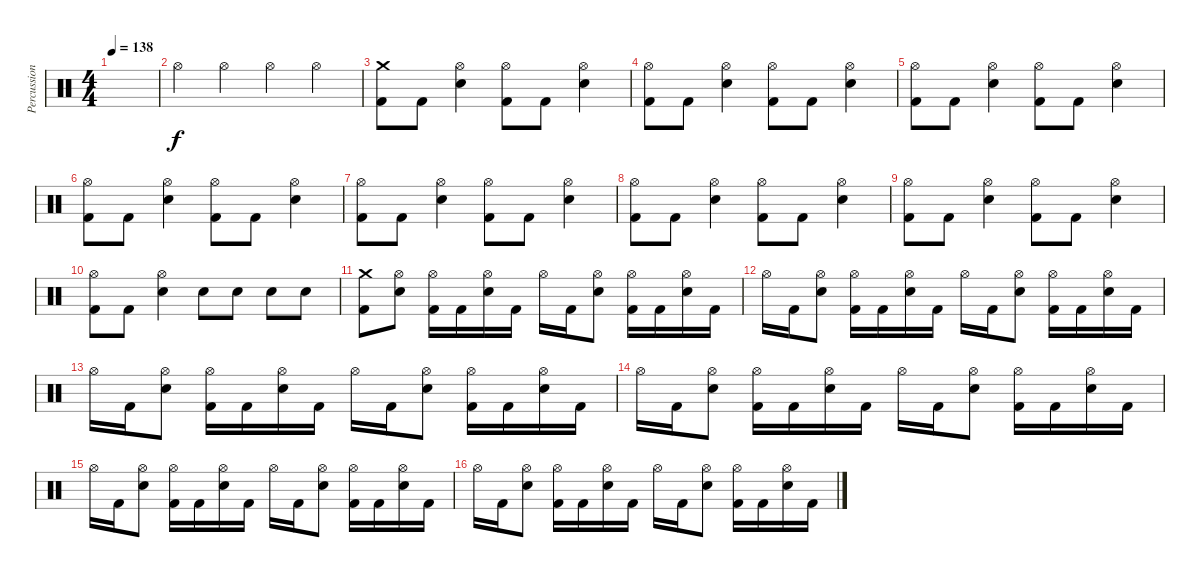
\track ("Percussion" "Percussion") {instrument percussion}
\staff {score}
\articulation defaults
\ts (4 4)
\tempo 138
\clef neutral
\ks c
|
"Hi-Hat (open)".4 "Hi-Hat (open)".4 "Hi-Hat (open)".4 "Hi-Hat (open)".4 |
("Crash medium (hit)" "Kick (hit) 2").8 "Kick (hit) 2".8 ("Hi-Hat (open)" "Snare (hit) 2").4 ("Hi-Hat (open)" "Kick (hit) 2").8 "Kick (hit) 2".8 ("Hi-Hat (open)" "Snare (hit) 2").4 |
("Hi-Hat (open)" "Kick (hit) 2").8 "Kick (hit) 2".8 ("Hi-Hat (open)" "Snare (hit) 2").4 ("Hi-Hat (open)" "Kick (hit) 2").8 "Kick (hit) 2".8 ("Hi-Hat (open)" "Snare (hit) 2").4 |
("Hi-Hat (open)" "Kick (hit) 2").8 "Kick (hit) 2".8 ("Hi-Hat (open)" "Snare (hit) 2").4 ("Hi-Hat (open)" "Kick (hit) 2").8 "Kick (hit) 2".8 ("Hi-Hat (open)" "Snare (hit) 2").4 |
("Hi-Hat (open)" "Kick (hit) 2").8 "Kick (hit) 2".8 ("Hi-Hat (open)" "Snare (hit) 2").4 ("Hi-Hat (open)" "Kick (hit) 2").8 "Kick (hit) 2".8 ("Hi-Hat (open)" "Snare (hit) 2").4 |
("Hi-Hat (open)" "Kick (hit) 2").8 "Kick (hit) 2".8 ("Hi-Hat (open)" "Snare (hit) 2").4 ("Hi-Hat (open)" "Kick (hit) 2").8 "Kick (hit) 2".8 ("Hi-Hat (open)" "Snare (hit) 2").4 |
("Hi-Hat (open)" "Kick (hit) 2").8 "Kick (hit) 2".8 ("Hi-Hat (open)" "Snare (hit) 2").4 ("Hi-Hat (open)" "Kick (hit) 2").8 "Kick (hit) 2".8 ("Hi-Hat (open)" "Snare (hit) 2").4 |
("Hi-Hat (open)" "Kick (hit) 2").8 "Kick (hit) 2".8 ("Hi-Hat (open)" "Snare (hit) 2").4 ("Hi-Hat (open)" "Kick (hit) 2").8 "Kick (hit) 2".8 ("Hi-Hat (open)" "Snare (hit) 2").4 |
("Hi-Hat (open)" "Kick (hit) 2").8 "Kick (hit) 2".8 ("Hi-Hat (open)" "Snare (hit) 2").4 "Snare (hit) 2".8 "Snare (hit) 2".8 "Snare (hit) 2".8 "Snare (hit) 2".8 |
("Crash medium (hit)" "Kick (hit) 2").8 ("Hi-Hat (open)" "Snare (hit) 2").8 ("Hi-Hat (open)" "Kick (hit) 2").16 "Kick (hit) 2".16 ("Hi-Hat (open)" "Snare (hit) 2").16 "Kick (hit) 2".16 "Hi-Hat (open)".16 "Kick (hit) 2".16 ("Hi-Hat (open)" "Snare (hit) 2").8 ("Hi-Hat (open)" "Kick (hit) 2").16 "Kick (hit) 2".16 ("Hi-Hat (open)" "Snare (hit) 2").16 "Kick (hit) 2".16 |
"Hi-Hat (open)".16 "Kick (hit) 2".16 ("Hi-Hat (open)" "Snare (hit) 2").8 ("Hi-Hat (open)" "Kick (hit) 2").16 "Kick (hit) 2".16 ("Hi-Hat (open)" "Snare (hit) 2").16 "Kick (hit) 2".16 "Hi-Hat (open)".16 "Kick (hit) 2".16 ("Hi-Hat (open)" "Snare (hit) 2").8 ("Hi-Hat (open)" "Kick (hit) 2").16 "Kick (hit) 2".16 ("Hi-Hat (open)" "Snare (hit) 2").16 "Kick (hit) 2".16 |
"Hi-Hat (open)".16 "Kick (hit) 2".16 ("Hi-Hat (open)" "Snare (hit) 2").8 ("Hi-Hat (open)" "Kick (hit) 2").16 "Kick (hit) 2".16 ("Hi-Hat (open)" "Snare (hit) 2").16 "Kick (hit) 2".16 "Hi-Hat (open)".16 "Kick (hit) 2".16 ("Hi-Hat (open)" "Snare (hit) 2").8 ("Hi-Hat (open)" "Kick (hit) 2").16 "Kick (hit) 2".16 ("Hi-Hat (open)" "Snare (hit) 2").16 "Kick (hit) 2".16 |
"Hi-Hat (open)".16 "Kick (hit) 2".16 ("Hi-Hat (open)" "Snare (hit) 2").8 ("Hi-Hat (open)" "Kick (hit) 2").16 "Kick (hit) 2".16 ("Hi-Hat (open)" "Snare (hit) 2").16 "Kick (hit) 2".16 "Hi-Hat (open)".16 "Kick (hit) 2".16 ("Hi-Hat (open)" "Snare (hit) 2").8 ("Hi-Hat (open)" "Kick (hit) 2").16 "Kick (hit) 2".16 ("Hi-Hat (open)" "Snare (hit) 2").16 "Kick (hit) 2".16 |
"Hi-Hat (open)".16 "Kick (hit) 2".16 ("Hi-Hat (open)" "Snare (hit) 2").8 ("Hi-Hat (open)" "Kick (hit) 2").16 "Kick (hit) 2".16 ("Hi-Hat (open)" "Snare (hit) 2").16 "Kick (hit) 2".16 "Hi-Hat (open)".16 "Kick (hit) 2".16 ("Hi-Hat (open)" "Snare (hit) 2").8 ("Hi-Hat (open)" "Kick (hit) 2").16 "Kick (hit) 2".16 ("Hi-Hat (open)" "Snare (hit) 2").16 "Kick (hit) 2".16 |
"Hi-Hat (open)".16 "Kick (hit) 2".16 ("Hi-Hat (open)" "Snare (hit) 2").8 ("Hi-Hat (open)" "Kick (hit) 2").16 "Kick (hit) 2".16 ("Hi-Hat (open)" "Snare (hit) 2").16 "Kick (hit) 2".16 "Hi-Hat (open)".16 "Kick (hit) 2".16 ("Hi-Hat (open)" "Snare (hit) 2").8 ("Hi-Hat (open)" "Kick (hit) 2").16 "Kick (hit) 2".16 ("Hi-Hat (open)" "Snare (hit) 2").16 "Kick (hit) 2".16
